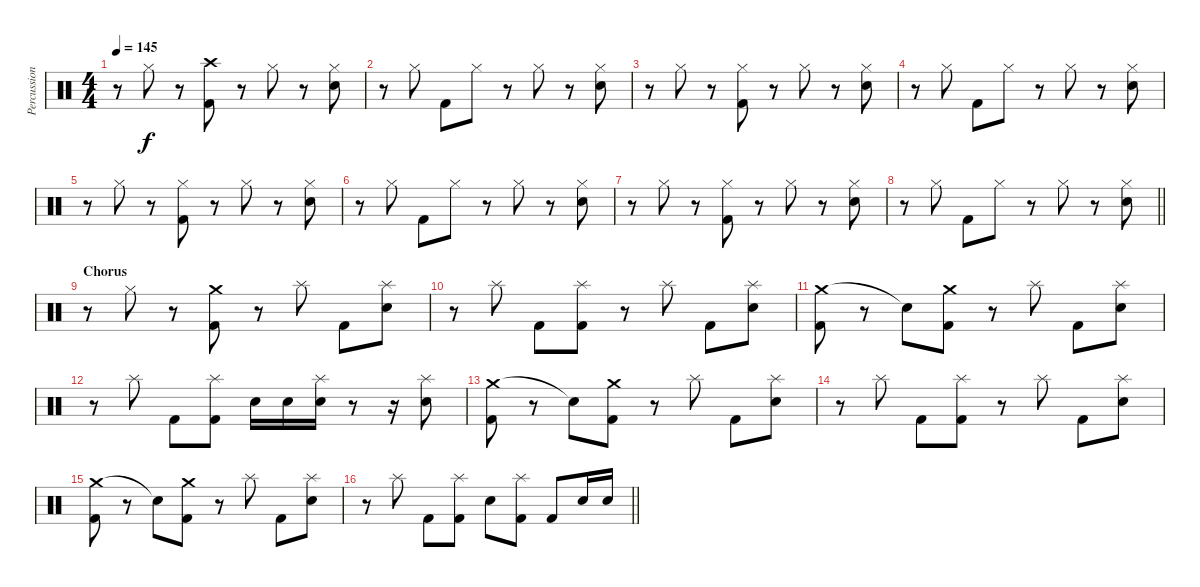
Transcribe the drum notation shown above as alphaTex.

\track ("Percussion" "Percussion") {instrument percussion}
\staff {score}
\articulation defaults
\ts (4 4)
\tempo 145
\clef neutral
\ks c
r.8{dy f} "Hi-Hat (closed)".8 r.8 ("Crash high (hit)" "Kick (hit) 2").8 r.8 "Hi-Hat (closed)".8 r.8 ("Hi-Hat (closed)" "Electric Snare (hit)").8 |
r.8 "Hi-Hat (closed)".8 "Kick (hit) 2".8 "Hi-Hat (closed)".8 r.8 "Hi-Hat (closed)".8 r.8 ("Hi-Hat (closed)" "Electric Snare (hit)").8 |
r.8 "Hi-Hat (closed)".8 r.8 ("Hi-Hat (closed)" "Kick (hit) 2").8 r.8 "Hi-Hat (closed)".8 r.8 ("Hi-Hat (closed)" "Electric Snare (hit)").8 |
r.8 "Hi-Hat (closed)".8 "Kick (hit) 2".8 "Hi-Hat (closed)".8 r.8 "Hi-Hat (closed)".8 r.8 ("Hi-Hat (closed)" "Electric Snare (hit)").8 |
r.8 "Hi-Hat (closed)".8 r.8 ("Hi-Hat (closed)" "Kick (hit) 2").8 r.8 "Hi-Hat (closed)".8 r.8 ("Hi-Hat (closed)" "Electric Snare (hit)").8 |
r.8 "Hi-Hat (closed)".8 "Kick (hit) 2".8 "Hi-Hat (closed)".8 r.8 "Hi-Hat (closed)".8 r.8 ("Hi-Hat (closed)" "Electric Snare (hit)").8 |
r.8 "Hi-Hat (closed)".8 r.8 ("Hi-Hat (closed)" "Kick (hit) 2").8 r.8 "Hi-Hat (closed)".8 r.8 ("Hi-Hat (closed)" "Electric Snare (hit)").8 |
\barLineRight lightlight
r.8 "Hi-Hat (closed)".8 "Kick (hit) 2".8 "Hi-Hat (closed)".8 r.8 "Hi-Hat (closed)".8 r.8 ("Hi-Hat (closed)" "Electric Snare (hit)").8 |
\section ("" "Chorus")
r.8 "Hi-Hat (closed)".8 r.8 ("Crash medium (hit)" "Kick (hit) 2").8 r.8 "Splash (hit)".8 "Kick (hit) 2".8 ("Splash (hit)" "Electric Snare (hit)").8 |
r.8 "Splash (hit)".8 "Kick (hit) 2".8 ("Splash (hit)" "Kick (hit) 2").8 r.8 "Splash (hit)".8 "Kick (hit) 2".8 ("Splash (hit)" "Electric Snare (hit)").8 |
("Crash medium (hit)" "Kick (hit) 2").8 r.8 "Snare (hit)"{t}.8 ("Crash medium (hit)" "Kick (hit) 2").8 r.8 "Splash (hit)".8 "Kick (hit) 2".8 ("Splash (hit)" "Electric Snare (hit)").8 |
r.8 "Splash (hit)".8 "Kick (hit) 2".8 ("Splash (hit)" "Kick (hit) 2").8 "Electric Snare (hit)".16 "Electric Snare (hit)".16 ("Splash (hit)" "Electric Snare (hit)").16 r.8 r.16 ("Splash (hit)" "Electric Snare (hit)").8 |
("Crash medium (hit)" "Kick (hit) 2").8 r.8 "Snare (hit)"{t}.8 ("Crash medium (hit)" "Kick (hit) 2").8 r.8 "Splash (hit)".8 "Kick (hit) 2".8 ("Splash (hit)" "Electric Snare (hit)").8 |
r.8 "Splash (hit)".8 "Kick (hit) 2".8 ("Splash (hit)" "Kick (hit) 2").8 r.8 "Splash (hit)".8 "Kick (hit) 2".8 ("Splash (hit)" "Electric Snare (hit)").8 |
("Crash medium (hit)" "Kick (hit) 2").8 r.8 "Snare (hit)"{t}.8 ("Crash medium (hit)" "Kick (hit) 2").8 r.8 "Splash (hit)".8 "Kick (hit) 2".8 ("Splash (hit)" "Electric Snare (hit)").8 |
\barLineRight lightlight
r.8 "Splash (hit)".8 "Kick (hit) 2".8 ("Splash (hit)" "Kick (hit) 2").8 "Electric Snare (hit)".8 ("Splash (hit)" "Kick (hit) 2").8 "Kick (hit) 2".8 "Electric Snare (hit)".16 "Electric Snare (hit)".16
